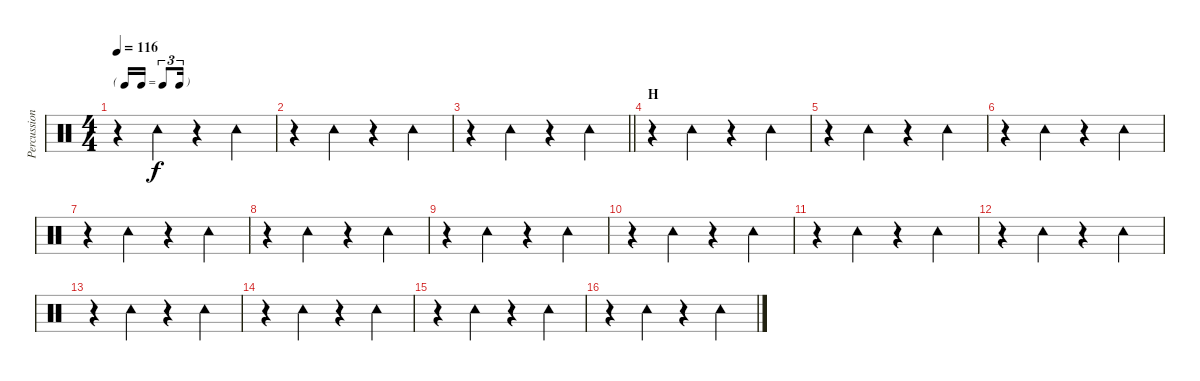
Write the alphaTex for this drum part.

\track ("Percussion" "Percussion") {instrument percussion}
\staff {score}
\articulation defaults
\ts (4 4)
\tf triplet16th
\tempo 116
\clef neutral
\ks c
r.4{dy f} "Tambourine (hit)".4 r.4 "Tambourine (hit)".4 |
r.4 "Tambourine (hit)".4 r.4 "Tambourine (hit)".4 |
\barLineRight lightlight
r.4 "Tambourine (hit)".4 r.4 "Tambourine (hit)".4 |
\section ("" "H")
r.4 "Tambourine (hit)".4 r.4 "Tambourine (hit)".4 |
r.4 "Tambourine (hit)".4 r.4 "Tambourine (hit)".4 |
r.4 "Tambourine (hit)".4 r.4 "Tambourine (hit)".4 |
r.4 "Tambourine (hit)".4 r.4 "Tambourine (hit)".4 |
r.4 "Tambourine (hit)".4 r.4 "Tambourine (hit)".4 |
r.4 "Tambourine (hit)".4 r.4 "Tambourine (hit)".4 |
r.4 "Tambourine (hit)".4 r.4 "Tambourine (hit)".4 |
r.4 "Tambourine (hit)".4 r.4 "Tambourine (hit)".4 |
r.4 "Tambourine (hit)".4 r.4 "Tambourine (hit)".4 |
r.4 "Tambourine (hit)".4 r.4 "Tambourine (hit)".4 |
r.4 "Tambourine (hit)".4 r.4 "Tambourine (hit)".4 |
r.4 "Tambourine (hit)".4 r.4 "Tambourine (hit)".4 |
r.4 "Tambourine (hit)".4 r.4 "Tambourine (hit)".4
